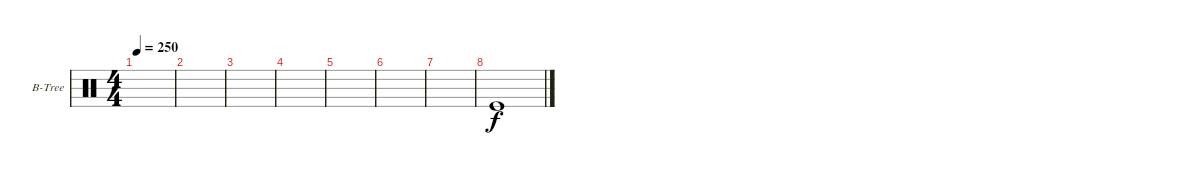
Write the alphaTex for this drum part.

\defaultSystemsLayout 4
\bracketExtendMode groupsimilarinstruments
\firstSystemTrackNameOrientation horizontal
\otherSystemsTrackNameOrientation horizontal
\track ("Bell Tree" "B-Tree") {mute instrument percussion}
\staff {score}
\articulation defaults
\ts (4 4)
\tempo 250
\clef neutral
\scale
0.333333
\ks c
|
\scale
0.333333 |
\scale
0.333333 |
\scale
0.333333 |
\scale
0.333333 |
\scale
0.333333 |
\scale
0.333333 |
\scale
0.333333 "Kick (hit)".1 |
\scale
0.333333 |
\scale
0.333333 |
\scale
0.333333 |
\scale
0.333333 |
\scale
0.333333 |
\scale
0.333333 |
\scale
0.333333 |
\scale
0.333333
